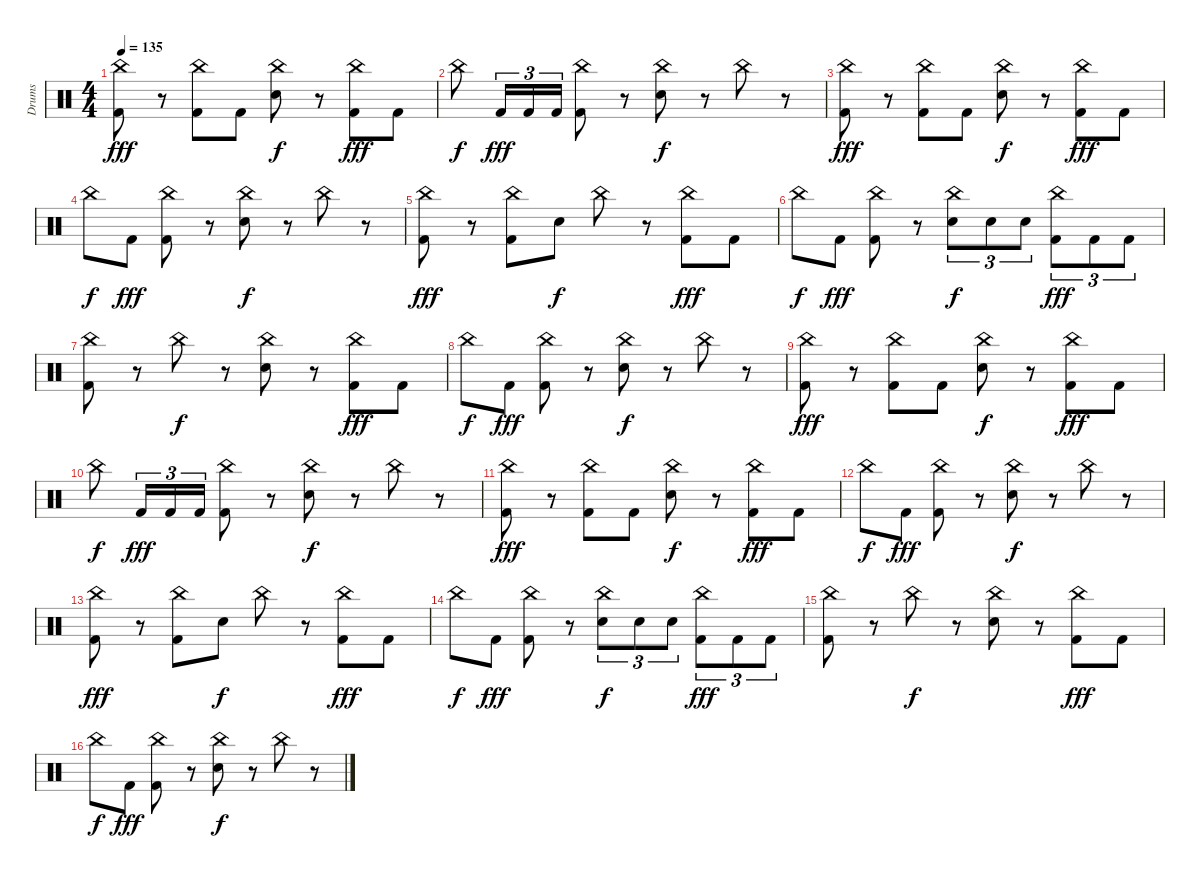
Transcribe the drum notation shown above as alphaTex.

\track ("Drums" "Drums") {instrument percussion}
\staff {score}
\articulation defaults
\ts (4 4)
\tempo 135
\clef neutral
\ks c
("China (hit)" "Kick (hit) 2").8{dy fff} r.8 ("China (hit)" "Kick (hit) 2").8 "Kick (hit) 2".8 ("China (hit)" "Snare (hit) 2").8{dy f} r.8 ("China (hit)" "Kick (hit) 2").8{dy fff} "Kick (hit) 2".8 |
"China (hit)".8{dy f} "Kick (hit) 2".16{tu (3 2) dy fff} "Kick (hit) 2".16{tu (3 2)} "Kick (hit) 2".16{tu (3 2)} ("China (hit)" "Kick (hit) 2").8 r.8 ("China (hit)" "Snare (hit) 2").8{dy f} r.8 "China (hit)".8 r.8 |
("China (hit)" "Kick (hit) 2").8{dy fff} r.8 ("China (hit)" "Kick (hit) 2").8 "Kick (hit) 2".8 ("China (hit)" "Snare (hit) 2").8{dy f} r.8 ("China (hit)" "Kick (hit) 2").8{dy fff} "Kick (hit) 2".8 |
"China (hit)".8{dy f} "Kick (hit) 2".8{dy fff} ("China (hit)" "Kick (hit) 2").8 r.8 ("China (hit)" "Snare (hit) 2").8{dy f} r.8 "China (hit)".8 r.8 |
("China (hit)" "Kick (hit) 2").8{dy fff} r.8 ("China (hit)" "Kick (hit) 2").8 "Snare (hit) 2".8{dy f} "China (hit)".8 r.8 ("China (hit)" "Kick (hit) 2").8{dy fff} "Kick (hit) 2".8 |
"China (hit)".8{dy f} "Kick (hit) 2".8{dy fff} ("China (hit)" "Kick (hit) 2").8 r.8 ("China (hit)" "Snare (hit) 2").8{tu (3 2) dy f} "Snare (hit) 2".8{tu (3 2)} "Snare (hit) 2".8{tu (3 2)} ("China (hit)" "Kick (hit) 2").8{tu (3 2) dy fff} "Kick (hit) 2".8{tu (3 2)} "Kick (hit) 2".8{tu (3 2)} |
("China (hit)" "Kick (hit) 2").8 r.8 "China (hit)".8{dy f} r.8 ("China (hit)" "Snare (hit) 2").8 r.8 ("China (hit)" "Kick (hit) 2").8{dy fff} "Kick (hit) 2".8 |
"China (hit)".8{dy f} "Kick (hit) 2".8{dy fff} ("China (hit)" "Kick (hit) 2").8 r.8 ("China (hit)" "Snare (hit) 2").8{dy f} r.8 "China (hit)".8 r.8 |
("China (hit)" "Kick (hit) 2").8{dy fff} r.8 ("China (hit)" "Kick (hit) 2").8 "Kick (hit) 2".8 ("China (hit)" "Snare (hit) 2").8{dy f} r.8 ("China (hit)" "Kick (hit) 2").8{dy fff} "Kick (hit) 2".8 |
"China (hit)".8{dy f} "Kick (hit) 2".16{tu (3 2) dy fff} "Kick (hit) 2".16{tu (3 2)} "Kick (hit) 2".16{tu (3 2)} ("China (hit)" "Kick (hit) 2").8 r.8 ("China (hit)" "Snare (hit) 2").8{dy f} r.8 "China (hit)".8 r.8 |
("China (hit)" "Kick (hit) 2").8{dy fff} r.8 ("China (hit)" "Kick (hit) 2").8 "Kick (hit) 2".8 ("China (hit)" "Snare (hit) 2").8{dy f} r.8 ("China (hit)" "Kick (hit) 2").8{dy fff} "Kick (hit) 2".8 |
"China (hit)".8{dy f} "Kick (hit) 2".8{dy fff} ("China (hit)" "Kick (hit) 2").8 r.8 ("China (hit)" "Snare (hit) 2").8{dy f} r.8 "China (hit)".8 r.8 |
("China (hit)" "Kick (hit) 2").8{dy fff} r.8 ("China (hit)" "Kick (hit) 2").8 "Snare (hit) 2".8{dy f} "China (hit)".8 r.8 ("China (hit)" "Kick (hit) 2").8{dy fff} "Kick (hit) 2".8 |
"China (hit)".8{dy f} "Kick (hit) 2".8{dy fff} ("China (hit)" "Kick (hit) 2").8 r.8 ("China (hit)" "Snare (hit) 2").8{tu (3 2) dy f} "Snare (hit) 2".8{tu (3 2)} "Snare (hit) 2".8{tu (3 2)} ("China (hit)" "Kick (hit) 2").8{tu (3 2) dy fff} "Kick (hit) 2".8{tu (3 2)} "Kick (hit) 2".8{tu (3 2)} |
("China (hit)" "Kick (hit) 2").8 r.8 "China (hit)".8{dy f} r.8 ("China (hit)" "Snare (hit) 2").8 r.8 ("China (hit)" "Kick (hit) 2").8{dy fff} "Kick (hit) 2".8 |
"China (hit)".8{dy f} "Kick (hit) 2".8{dy fff} ("China (hit)" "Kick (hit) 2").8 r.8 ("China (hit)" "Snare (hit) 2").8{dy f} r.8 "China (hit)".8 r.8
